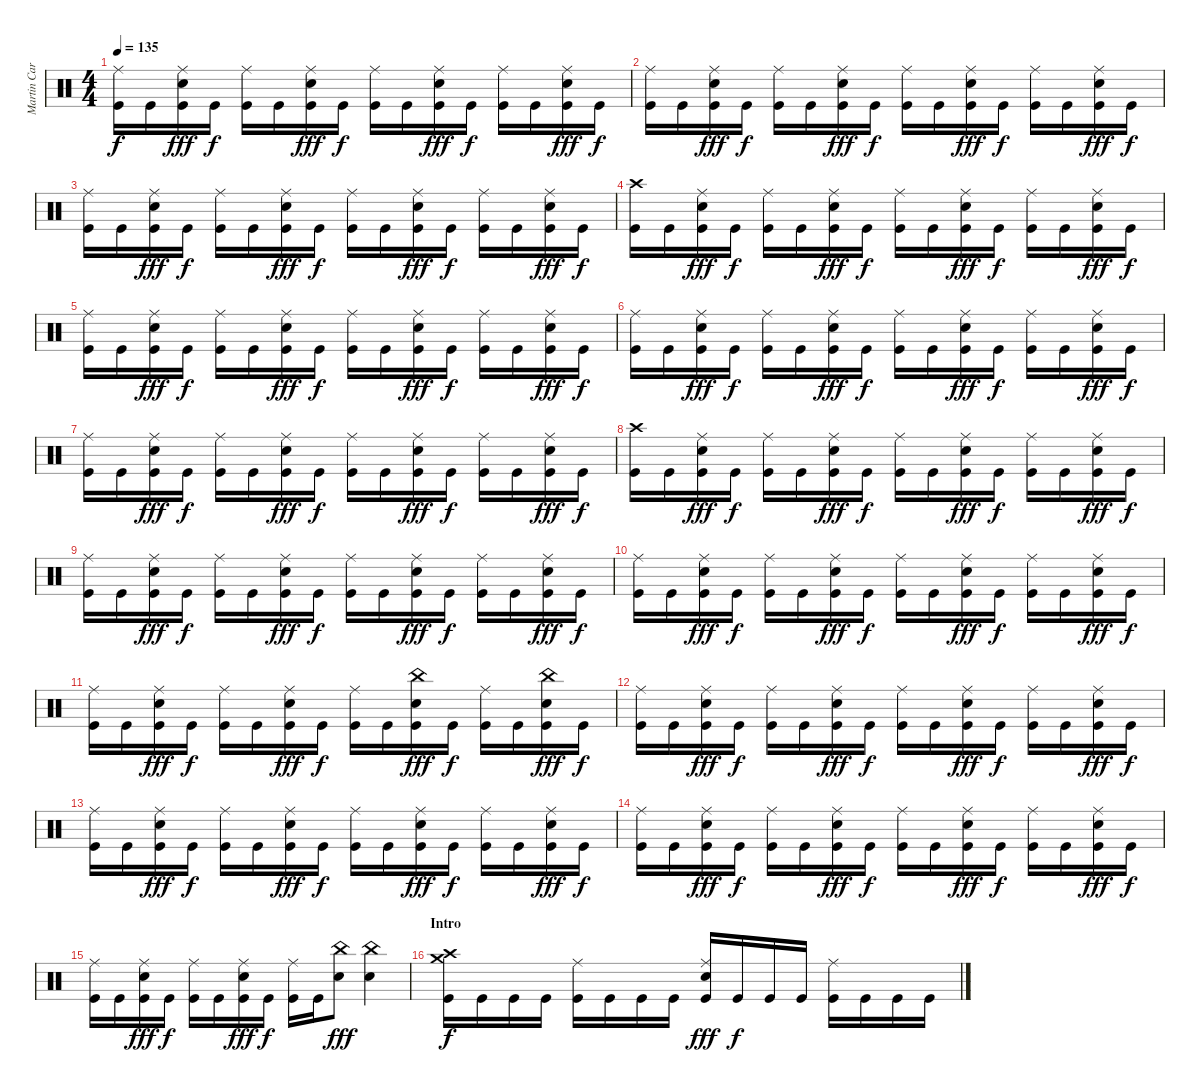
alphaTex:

\track ("Martin Carrizo" "Martin Car") {instrument percussion}
\staff {score}
\articulation defaults
\ts (4 4)
\tempo 135
\clef neutral
\ks c
("Kick (hit)" "Ride (middle)").16{dy f} "Kick (hit)".16 ("Kick (hit)" "Snare (hit) 2" "Ride (middle)").16{dy fff} "Kick (hit)".16{dy f} ("Kick (hit)" "Ride (middle)").16 "Kick (hit)".16 ("Kick (hit)" "Snare (hit) 2" "Ride (middle)").16{dy fff} "Kick (hit)".16{dy f} ("Kick (hit)" "Ride (middle)").16 "Kick (hit)".16 ("Kick (hit)" "Snare (hit) 2" "Ride (middle)").16{dy fff} "Kick (hit)".16{dy f} ("Kick (hit)" "Ride (middle)").16 "Kick (hit)".16 ("Kick (hit)" "Snare (hit) 2" "Ride (middle)").16{dy fff} "Kick (hit)".16{dy f} |
("Kick (hit)" "Ride (middle)").16 "Kick (hit)".16 ("Kick (hit)" "Snare (hit) 2" "Ride (middle)").16{dy fff} "Kick (hit)".16{dy f} ("Kick (hit)" "Ride (middle)").16 "Kick (hit)".16 ("Kick (hit)" "Snare (hit) 2" "Ride (middle)").16{dy fff} "Kick (hit)".16{dy f} ("Kick (hit)" "Ride (middle)").16 "Kick (hit)".16 ("Kick (hit)" "Snare (hit) 2" "Ride (middle)").16{dy fff} "Kick (hit)".16{dy f} ("Kick (hit)" "Ride (middle)").16 "Kick (hit)".16 ("Kick (hit)" "Snare (hit) 2" "Ride (middle)").16{dy fff} "Kick (hit)".16{dy f} |
("Kick (hit)" "Ride (middle)").16 "Kick (hit)".16 ("Kick (hit)" "Snare (hit) 2" "Ride (middle)").16{dy fff} "Kick (hit)".16{dy f} ("Kick (hit)" "Ride (middle)").16 "Kick (hit)".16 ("Kick (hit)" "Snare (hit) 2" "Ride (middle)").16{dy fff} "Kick (hit)".16{dy f} ("Kick (hit)" "Ride (middle)").16 "Kick (hit)".16 ("Kick (hit)" "Snare (hit) 2" "Ride (middle)").16{dy fff} "Kick (hit)".16{dy f} ("Kick (hit)" "Ride (middle)").16 "Kick (hit)".16 ("Kick (hit)" "Snare (hit) 2" "Ride (middle)").16{dy fff} "Kick (hit)".16{dy f} |
("Kick (hit)" "Crash high (hit)").16 "Kick (hit)".16 ("Kick (hit)" "Snare (hit) 2" "Ride (middle)").16{dy fff} "Kick (hit)".16{dy f} ("Kick (hit)" "Ride (middle)").16 "Kick (hit)".16 ("Kick (hit)" "Snare (hit) 2" "Ride (middle)").16{dy fff} "Kick (hit)".16{dy f} ("Kick (hit)" "Ride (middle)").16 "Kick (hit)".16 ("Kick (hit)" "Snare (hit) 2" "Ride (middle)").16{dy fff} "Kick (hit)".16{dy f} ("Kick (hit)" "Ride (middle)").16 "Kick (hit)".16 ("Kick (hit)" "Snare (hit) 2" "Ride (middle)").16{dy fff} "Kick (hit)".16{dy f} |
("Kick (hit)" "Ride (middle)").16 "Kick (hit)".16 ("Kick (hit)" "Snare (hit) 2" "Ride (middle)").16{dy fff} "Kick (hit)".16{dy f} ("Kick (hit)" "Ride (middle)").16 "Kick (hit)".16 ("Kick (hit)" "Snare (hit) 2" "Ride (middle)").16{dy fff} "Kick (hit)".16{dy f} ("Kick (hit)" "Ride (middle)").16 "Kick (hit)".16 ("Kick (hit)" "Snare (hit) 2" "Ride (middle)").16{dy fff} "Kick (hit)".16{dy f} ("Kick (hit)" "Ride (middle)").16 "Kick (hit)".16 ("Kick (hit)" "Snare (hit) 2" "Ride (middle)").16{dy fff} "Kick (hit)".16{dy f} |
("Kick (hit)" "Ride (middle)").16 "Kick (hit)".16 ("Kick (hit)" "Snare (hit) 2" "Ride (middle)").16{dy fff} "Kick (hit)".16{dy f} ("Kick (hit)" "Ride (middle)").16 "Kick (hit)".16 ("Kick (hit)" "Snare (hit) 2" "Ride (middle)").16{dy fff} "Kick (hit)".16{dy f} ("Kick (hit)" "Ride (middle)").16 "Kick (hit)".16 ("Kick (hit)" "Snare (hit) 2" "Ride (middle)").16{dy fff} "Kick (hit)".16{dy f} ("Kick (hit)" "Ride (middle)").16 "Kick (hit)".16 ("Kick (hit)" "Snare (hit) 2" "Ride (middle)").16{dy fff} "Kick (hit)".16{dy f} |
("Kick (hit)" "Ride (middle)").16 "Kick (hit)".16 ("Kick (hit)" "Snare (hit) 2" "Ride (middle)").16{dy fff} "Kick (hit)".16{dy f} ("Kick (hit)" "Ride (middle)").16 "Kick (hit)".16 ("Kick (hit)" "Snare (hit) 2" "Ride (middle)").16{dy fff} "Kick (hit)".16{dy f} ("Kick (hit)" "Ride (middle)").16 "Kick (hit)".16 ("Kick (hit)" "Snare (hit) 2" "Ride (middle)").16{dy fff} "Kick (hit)".16{dy f} ("Kick (hit)" "Ride (middle)").16 "Kick (hit)".16 ("Kick (hit)" "Snare (hit) 2" "Ride (middle)").16{dy fff} "Kick (hit)".16{dy f} |
("Kick (hit)" "Crash high (hit)").16 "Kick (hit)".16 ("Kick (hit)" "Snare (hit) 2" "Ride (middle)").16{dy fff} "Kick (hit)".16{dy f} ("Kick (hit)" "Ride (middle)").16 "Kick (hit)".16 ("Kick (hit)" "Snare (hit) 2" "Ride (middle)").16{dy fff} "Kick (hit)".16{dy f} ("Kick (hit)" "Ride (middle)").16 "Kick (hit)".16 ("Kick (hit)" "Snare (hit) 2" "Ride (middle)").16{dy fff} "Kick (hit)".16{dy f} ("Kick (hit)" "Ride (middle)").16 "Kick (hit)".16 ("Kick (hit)" "Snare (hit) 2" "Ride (middle)").16{dy fff} "Kick (hit)".16{dy f} |
("Kick (hit)" "Ride (middle)").16 "Kick (hit)".16 ("Kick (hit)" "Snare (hit) 2" "Ride (middle)").16{dy fff} "Kick (hit)".16{dy f} ("Kick (hit)" "Ride (middle)").16 "Kick (hit)".16 ("Kick (hit)" "Snare (hit) 2" "Ride (middle)").16{dy fff} "Kick (hit)".16{dy f} ("Kick (hit)" "Ride (middle)").16 "Kick (hit)".16 ("Kick (hit)" "Snare (hit) 2" "Ride (middle)").16{dy fff} "Kick (hit)".16{dy f} ("Kick (hit)" "Ride (middle)").16 "Kick (hit)".16 ("Kick (hit)" "Snare (hit) 2" "Ride (middle)").16{dy fff} "Kick (hit)".16{dy f} |
("Kick (hit)" "Ride (middle)").16 "Kick (hit)".16 ("Kick (hit)" "Snare (hit) 2" "Ride (middle)").16{dy fff} "Kick (hit)".16{dy f} ("Kick (hit)" "Ride (middle)").16 "Kick (hit)".16 ("Kick (hit)" "Snare (hit) 2" "Ride (middle)").16{dy fff} "Kick (hit)".16{dy f} ("Kick (hit)" "Ride (middle)").16 "Kick (hit)".16 ("Kick (hit)" "Snare (hit) 2" "Ride (middle)").16{dy fff} "Kick (hit)".16{dy f} ("Kick (hit)" "Ride (middle)").16 "Kick (hit)".16 ("Kick (hit)" "Snare (hit) 2" "Ride (middle)").16{dy fff} "Kick (hit)".16{dy f} |
("Kick (hit)" "Ride (middle)").16 "Kick (hit)".16 ("Kick (hit)" "Snare (hit) 2" "Ride (middle)").16{dy fff} "Kick (hit)".16{dy f} ("Kick (hit)" "Ride (middle)").16 "Kick (hit)".16 ("Kick (hit)" "Snare (hit) 2" "Ride (middle)").16{dy fff} "Kick (hit)".16{dy f} ("Kick (hit)" "Ride (middle)").16 "Kick (hit)".16 ("Kick (hit)" "Snare (hit) 2" "China (hit)").16{dy fff} "Kick (hit)".16{dy f} ("Kick (hit)" "Ride (middle)").16 "Kick (hit)".16 ("Kick (hit)" "Snare (hit) 2" "China (hit)").16{dy fff} "Kick (hit)".16{dy f} |
("Kick (hit)" "Ride (middle)").16 "Kick (hit)".16 ("Kick (hit)" "Snare (hit) 2" "Ride (middle)").16{dy fff} "Kick (hit)".16{dy f} ("Kick (hit)" "Ride (middle)").16 "Kick (hit)".16 ("Kick (hit)" "Snare (hit) 2" "Ride (middle)").16{dy fff} "Kick (hit)".16{dy f} ("Kick (hit)" "Ride (middle)").16 "Kick (hit)".16 ("Kick (hit)" "Snare (hit) 2" "Ride (middle)").16{dy fff} "Kick (hit)".16{dy f} ("Kick (hit)" "Ride (middle)").16 "Kick (hit)".16 ("Kick (hit)" "Snare (hit) 2" "Ride (middle)").16{dy fff} "Kick (hit)".16{dy f} |
("Kick (hit)" "Ride (middle)").16 "Kick (hit)".16 ("Kick (hit)" "Snare (hit) 2" "Ride (middle)").16{dy fff} "Kick (hit)".16{dy f} ("Kick (hit)" "Ride (middle)").16 "Kick (hit)".16 ("Kick (hit)" "Snare (hit) 2" "Ride (middle)").16{dy fff} "Kick (hit)".16{dy f} ("Kick (hit)" "Ride (middle)").16 "Kick (hit)".16 ("Kick (hit)" "Snare (hit) 2" "Ride (middle)").16{dy fff} "Kick (hit)".16{dy f} ("Kick (hit)" "Ride (middle)").16 "Kick (hit)".16 ("Kick (hit)" "Snare (hit) 2" "Ride (middle)").16{dy fff} "Kick (hit)".16{dy f} |
("Kick (hit)" "Ride (middle)").16 "Kick (hit)".16 ("Kick (hit)" "Snare (hit) 2" "Ride (middle)").16{dy fff} "Kick (hit)".16{dy f} ("Kick (hit)" "Ride (middle)").16 "Kick (hit)".16 ("Kick (hit)" "Snare (hit) 2" "Ride (middle)").16{dy fff} "Kick (hit)".16{dy f} ("Kick (hit)" "Ride (middle)").16 "Kick (hit)".16 ("Kick (hit)" "Snare (hit) 2" "Ride (middle)").16{dy fff} "Kick (hit)".16{dy f} ("Kick (hit)" "Ride (middle)").16 "Kick (hit)".16 ("Kick (hit)" "Snare (hit) 2" "Ride (middle)").16{dy fff} "Kick (hit)".16{dy f} |
("Kick (hit)" "Ride (middle)").16 "Kick (hit)".16 ("Kick (hit)" "Snare (hit) 2" "Ride (middle)").16{dy fff} "Kick (hit)".16{dy f} ("Kick (hit)" "Ride (middle)").16 "Kick (hit)".16 ("Kick (hit)" "Snare (hit) 2" "Ride (middle)").16{dy fff} "Kick (hit)".16{dy f} ("Kick (hit)" "Ride (middle)").16 "Kick (hit)".16 ("Snare (hit) 2" "China (hit)").8{dy fff} ("Snare (hit) 2" "China (hit)").4 |
\section ("" "Intro")
("Kick (hit)" "Crash high (hit)" "Crash medium (hit)").16{dy f} "Kick (hit)".16 "Kick (hit)".16 "Kick (hit)".16 ("Kick (hit)" "Ride (middle)").16 "Kick (hit)".16 "Kick (hit)".16 "Kick (hit)".16 ("Kick (hit)" "Snare (hit) 2" "Ride (middle)").16{dy fff} "Kick (hit)".16{dy f} "Kick (hit)".16 "Kick (hit)".16 ("Kick (hit)" "Ride (middle)").16 "Kick (hit)".16 "Kick (hit)".16 "Kick (hit)".16
